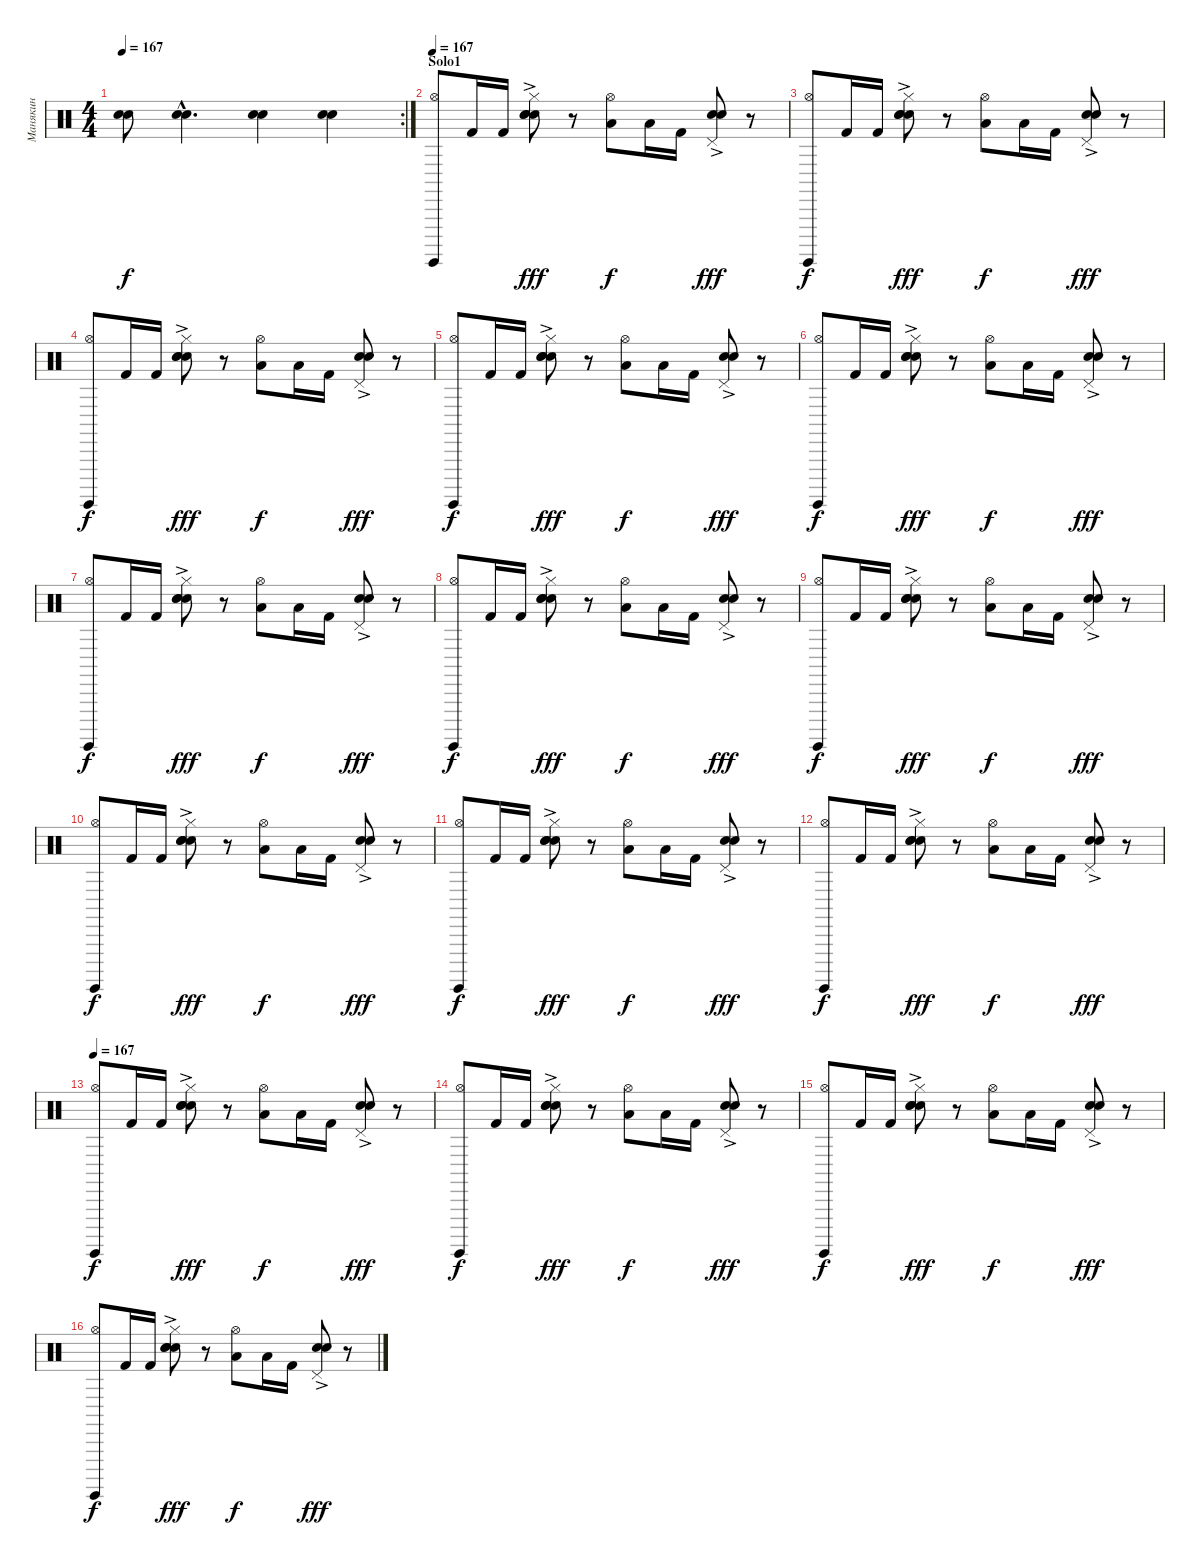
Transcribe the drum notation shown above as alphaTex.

\track ("Манякин" "Манякин") {instrument percussion}
\staff {score}
\articulation defaults
\rc 2
\ts (4 4)
\tempo 167
\clef neutral
\ks c
("Snare (hit)"{t} "Snare (hit)"{t}).8{dy f} ("Snare (hit) 2"{hac} "Electric Snare (hit)"{hac}).4{d} ("Snare (hit) 2" "Electric Snare (hit)").4 ("Electric Snare (hit)" "Snare (hit) 2").4 |
\section ("" "Solo1")
\tempo 167
("Surdo (hit)" "Hi-Hat (open)").8 "Kick (hit) 2".16 "Kick (hit) 2".16 ("Hi-Hat (closed)" "Electric Snare (hit)"{ac} "Snare (hit) 2" "Electric Snare (hit)").8{dy fff} r.8 ("Low Tom (hit)" "Hi-Hat (open)").8{dy f} "Low Tom (hit)".16 "Kick (hit) 2".16 ("Electric Snare (hit)"{ac} "Snare (hit) 2" "Pedal Hi-Hat (hit)").8{dy fff} r.8 |
("Surdo (hit)" "Hi-Hat (open)").8{dy f} "Kick (hit) 2".16 "Kick (hit) 2".16 ("Hi-Hat (closed)" "Electric Snare (hit)"{ac} "Snare (hit) 2" "Electric Snare (hit)").8{dy fff} r.8 ("Low Tom (hit)" "Hi-Hat (open)").8{dy f} "Low Tom (hit)".16 "Kick (hit) 2".16 ("Electric Snare (hit)"{ac} "Snare (hit) 2" "Pedal Hi-Hat (hit)").8{dy fff} r.8 |
("Surdo (hit)" "Hi-Hat (open)").8{dy f} "Kick (hit) 2".16 "Kick (hit) 2".16 ("Hi-Hat (closed)" "Electric Snare (hit)"{ac} "Snare (hit) 2" "Electric Snare (hit)").8{dy fff} r.8 ("Low Tom (hit)" "Hi-Hat (open)").8{dy f} "Low Tom (hit)".16 "Kick (hit) 2".16 ("Electric Snare (hit)"{ac} "Snare (hit) 2" "Pedal Hi-Hat (hit)").8{dy fff} r.8 |
("Surdo (hit)" "Hi-Hat (open)").8{dy f} "Kick (hit) 2".16 "Kick (hit) 2".16 ("Hi-Hat (closed)" "Electric Snare (hit)"{ac} "Snare (hit) 2" "Electric Snare (hit)").8{dy fff} r.8 ("Low Tom (hit)" "Hi-Hat (open)").8{dy f} "Low Tom (hit)".16 "Kick (hit) 2".16 ("Electric Snare (hit)"{ac} "Snare (hit) 2" "Pedal Hi-Hat (hit)").8{dy fff} r.8 |
("Surdo (hit)" "Hi-Hat (open)").8{dy f} "Kick (hit) 2".16 "Kick (hit) 2".16 ("Hi-Hat (closed)" "Electric Snare (hit)"{ac} "Snare (hit) 2" "Electric Snare (hit)").8{dy fff} r.8 ("Low Tom (hit)" "Hi-Hat (open)").8{dy f} "Low Tom (hit)".16 "Kick (hit) 2".16 ("Electric Snare (hit)"{ac} "Snare (hit) 2" "Pedal Hi-Hat (hit)").8{dy fff} r.8 |
("Surdo (hit)" "Hi-Hat (open)").8{dy f} "Kick (hit) 2".16 "Kick (hit) 2".16 ("Hi-Hat (closed)" "Electric Snare (hit)"{ac} "Snare (hit) 2" "Electric Snare (hit)").8{dy fff} r.8 ("Low Tom (hit)" "Hi-Hat (open)").8{dy f} "Low Tom (hit)".16 "Kick (hit) 2".16 ("Electric Snare (hit)"{ac} "Snare (hit) 2" "Pedal Hi-Hat (hit)").8{dy fff} r.8 |
("Surdo (hit)" "Hi-Hat (open)").8{dy f} "Kick (hit) 2".16 "Kick (hit) 2".16 ("Hi-Hat (closed)" "Electric Snare (hit)"{ac} "Snare (hit) 2" "Electric Snare (hit)").8{dy fff} r.8 ("Low Tom (hit)" "Hi-Hat (open)").8{dy f} "Low Tom (hit)".16 "Kick (hit) 2".16 ("Electric Snare (hit)"{ac} "Snare (hit) 2" "Pedal Hi-Hat (hit)").8{dy fff} r.8 |
("Surdo (hit)" "Hi-Hat (open)").8{dy f} "Kick (hit) 2".16 "Kick (hit) 2".16 ("Hi-Hat (closed)" "Electric Snare (hit)"{ac} "Snare (hit) 2" "Electric Snare (hit)").8{dy fff} r.8 ("Low Tom (hit)" "Hi-Hat (open)").8{dy f} "Low Tom (hit)".16 "Kick (hit) 2".16 ("Electric Snare (hit)"{ac} "Snare (hit) 2" "Pedal Hi-Hat (hit)").8{dy fff} r.8 |
("Surdo (hit)" "Hi-Hat (open)").8{dy f} "Kick (hit) 2".16 "Kick (hit) 2".16 ("Hi-Hat (closed)" "Electric Snare (hit)"{ac} "Snare (hit) 2" "Electric Snare (hit)").8{dy fff} r.8 ("Low Tom (hit)" "Hi-Hat (open)").8{dy f} "Low Tom (hit)".16 "Kick (hit) 2".16 ("Electric Snare (hit)"{ac} "Snare (hit) 2" "Pedal Hi-Hat (hit)").8{dy fff} r.8 |
("Surdo (hit)" "Hi-Hat (open)").8{dy f} "Kick (hit) 2".16 "Kick (hit) 2".16 ("Hi-Hat (closed)" "Electric Snare (hit)"{ac} "Snare (hit) 2" "Electric Snare (hit)").8{dy fff} r.8 ("Low Tom (hit)" "Hi-Hat (open)").8{dy f} "Low Tom (hit)".16 "Kick (hit) 2".16 ("Electric Snare (hit)"{ac} "Snare (hit) 2" "Pedal Hi-Hat (hit)").8{dy fff} r.8 |
("Surdo (hit)" "Hi-Hat (open)").8{dy f} "Kick (hit) 2".16 "Kick (hit) 2".16 ("Hi-Hat (closed)" "Electric Snare (hit)"{ac} "Snare (hit) 2" "Electric Snare (hit)").8{dy fff} r.8 ("Low Tom (hit)" "Hi-Hat (open)").8{dy f} "Low Tom (hit)".16 "Kick (hit) 2".16 ("Electric Snare (hit)"{ac} "Snare (hit) 2" "Pedal Hi-Hat (hit)").8{dy fff} r.8 |
\tempo 167
("Surdo (hit)" "Hi-Hat (open)").8{dy f} "Kick (hit) 2".16 "Kick (hit) 2".16 ("Hi-Hat (closed)" "Electric Snare (hit)"{ac} "Snare (hit) 2" "Electric Snare (hit)").8{dy fff} r.8 ("Low Tom (hit)" "Hi-Hat (open)").8{dy f} "Low Tom (hit)".16 "Kick (hit) 2".16 ("Electric Snare (hit)"{ac} "Snare (hit) 2" "Pedal Hi-Hat (hit)").8{dy fff} r.8 |
("Surdo (hit)" "Hi-Hat (open)").8{dy f} "Kick (hit) 2".16 "Kick (hit) 2".16 ("Hi-Hat (closed)" "Electric Snare (hit)"{ac} "Snare (hit) 2" "Electric Snare (hit)").8{dy fff} r.8 ("Low Tom (hit)" "Hi-Hat (open)").8{dy f} "Low Tom (hit)".16 "Kick (hit) 2".16 ("Electric Snare (hit)"{ac} "Snare (hit) 2" "Pedal Hi-Hat (hit)").8{dy fff} r.8 |
("Surdo (hit)" "Hi-Hat (open)").8{dy f} "Kick (hit) 2".16 "Kick (hit) 2".16 ("Hi-Hat (closed)" "Electric Snare (hit)"{ac} "Snare (hit) 2" "Electric Snare (hit)").8{dy fff} r.8 ("Low Tom (hit)" "Hi-Hat (open)").8{dy f} "Low Tom (hit)".16 "Kick (hit) 2".16 ("Electric Snare (hit)"{ac} "Snare (hit) 2" "Pedal Hi-Hat (hit)").8{dy fff} r.8 |
("Surdo (hit)" "Hi-Hat (open)").8{dy f} "Kick (hit) 2".16 "Kick (hit) 2".16 ("Hi-Hat (closed)" "Electric Snare (hit)"{ac} "Snare (hit) 2" "Electric Snare (hit)").8{dy fff} r.8 ("Low Tom (hit)" "Hi-Hat (open)").8{dy f} "Low Tom (hit)".16 "Kick (hit) 2".16 ("Electric Snare (hit)"{ac} "Snare (hit) 2" "Pedal Hi-Hat (hit)").8{dy fff} r.8
